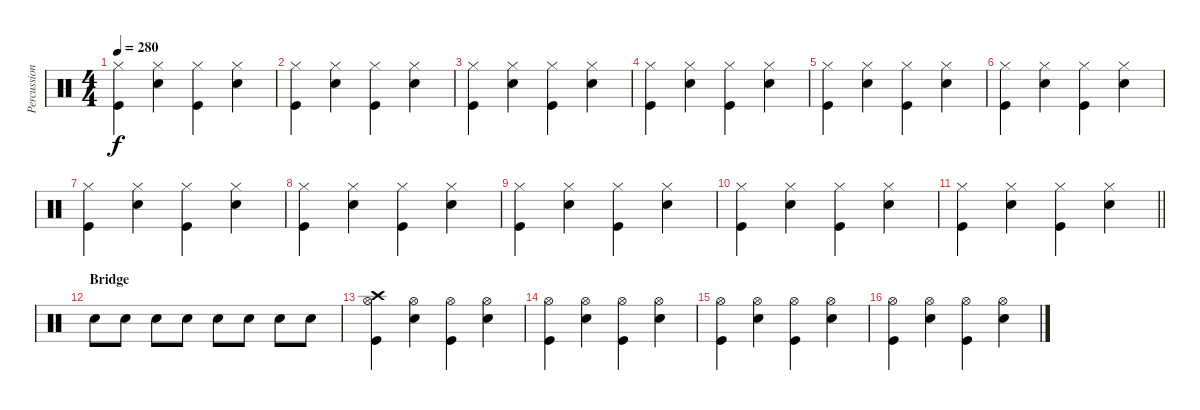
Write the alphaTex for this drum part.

\track ("Percussion" "Percussion") {instrument percussion}
\staff {score}
\articulation defaults
\ts (4 4)
\tempo 280
\clef neutral
\ks c
("Hi-Hat (closed)" "Kick (hit)").4{dy f} ("Hi-Hat (closed)" "Snare (hit) 2").4 ("Hi-Hat (closed)" "Kick (hit)").4 ("Hi-Hat (closed)" "Snare (hit) 2").4 |
("Hi-Hat (closed)" "Kick (hit)").4 ("Hi-Hat (closed)" "Snare (hit) 2").4 ("Hi-Hat (closed)" "Kick (hit)").4 ("Hi-Hat (closed)" "Snare (hit) 2").4 |
("Hi-Hat (closed)" "Kick (hit)").4 ("Hi-Hat (closed)" "Snare (hit) 2").4 ("Hi-Hat (closed)" "Kick (hit)").4 ("Hi-Hat (closed)" "Snare (hit) 2").4 |
("Hi-Hat (closed)" "Kick (hit)").4 ("Hi-Hat (closed)" "Snare (hit) 2").4 ("Hi-Hat (closed)" "Kick (hit)").4 ("Hi-Hat (closed)" "Snare (hit) 2").4 |
("Hi-Hat (closed)" "Kick (hit)").4 ("Hi-Hat (closed)" "Snare (hit) 2").4 ("Hi-Hat (closed)" "Kick (hit)").4 ("Hi-Hat (closed)" "Snare (hit) 2").4 |
("Hi-Hat (closed)" "Kick (hit)").4 ("Hi-Hat (closed)" "Snare (hit) 2").4 ("Hi-Hat (closed)" "Kick (hit)").4 ("Hi-Hat (closed)" "Snare (hit) 2").4 |
("Hi-Hat (closed)" "Kick (hit)").4 ("Hi-Hat (closed)" "Snare (hit) 2").4 ("Hi-Hat (closed)" "Kick (hit)").4 ("Hi-Hat (closed)" "Snare (hit) 2").4 |
("Hi-Hat (closed)" "Kick (hit)").4 ("Hi-Hat (closed)" "Snare (hit) 2").4 ("Hi-Hat (closed)" "Kick (hit)").4 ("Hi-Hat (closed)" "Snare (hit) 2").4 |
("Hi-Hat (closed)" "Kick (hit)").4 ("Hi-Hat (closed)" "Snare (hit) 2").4 ("Hi-Hat (closed)" "Kick (hit)").4 ("Hi-Hat (closed)" "Snare (hit) 2").4 |
("Hi-Hat (closed)" "Kick (hit)").4 ("Hi-Hat (closed)" "Snare (hit) 2").4 ("Hi-Hat (closed)" "Kick (hit)").4 ("Hi-Hat (closed)" "Snare (hit) 2").4 |
\barLineRight lightlight
("Hi-Hat (closed)" "Kick (hit)").4 ("Hi-Hat (closed)" "Snare (hit) 2").4 ("Hi-Hat (closed)" "Kick (hit)").4 ("Hi-Hat (closed)" "Snare (hit) 2").4 |
\section ("" "Bridge")
"Snare (hit) 2".8 "Snare (hit) 2".8 "Snare (hit) 2".8 "Snare (hit) 2".8 "Snare (hit) 2".8 "Snare (hit) 2".8 "Snare (hit) 2".8 "Snare (hit) 2".8 |
("Crash high (hit)" "Hi-Hat (open)" "Kick (hit)").4 ("Hi-Hat (open)" "Snare (hit) 2").4 ("Hi-Hat (open)" "Kick (hit)").4 ("Hi-Hat (open)" "Snare (hit) 2").4 |
("Hi-Hat (open)" "Kick (hit)").4 ("Hi-Hat (open)" "Snare (hit) 2").4 ("Hi-Hat (open)" "Kick (hit)").4 ("Hi-Hat (open)" "Snare (hit) 2").4 |
("Hi-Hat (open)" "Kick (hit)").4 ("Hi-Hat (open)" "Snare (hit) 2").4 ("Hi-Hat (open)" "Kick (hit)").4 ("Hi-Hat (open)" "Snare (hit) 2").4 |
("Hi-Hat (open)" "Kick (hit)").4 ("Hi-Hat (open)" "Snare (hit) 2").4 ("Hi-Hat (open)" "Kick (hit)").4 ("Hi-Hat (open)" "Snare (hit) 2").4
